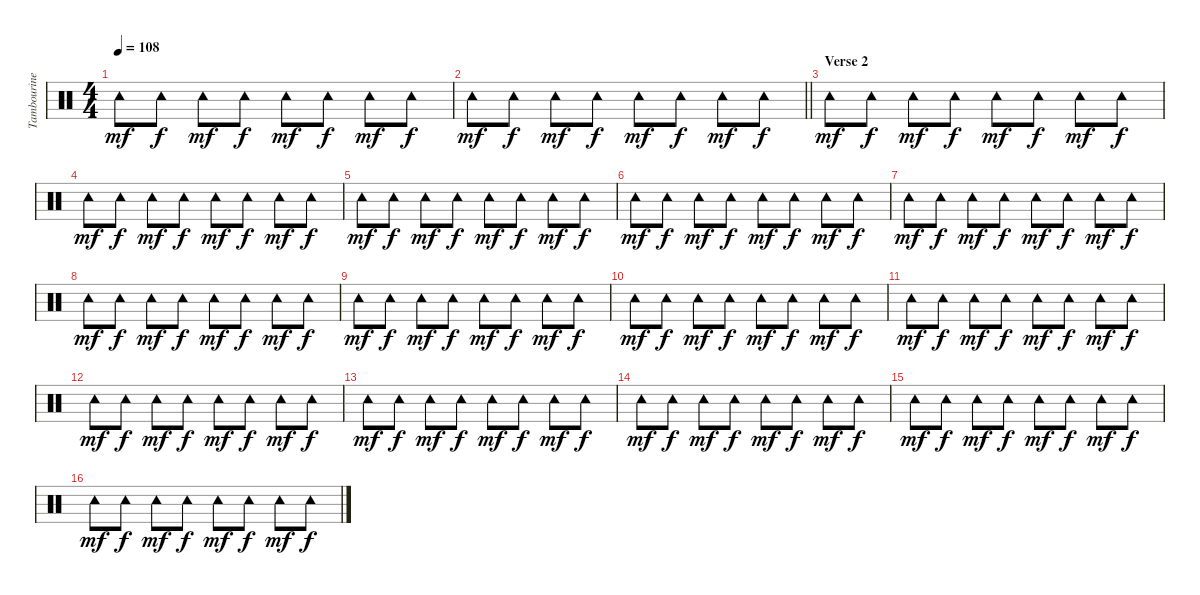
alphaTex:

\track ("Tambourine" "Tambourine") {instrument percussion}
\staff {score}
\articulation defaults
\ts (4 4)
\tempo 108
\clef neutral
\ks c "Tambourine (hit)".8{dy mf} "Tambourine (hit)".8{dy f} "Tambourine (hit)".8{dy mf} "Tambourine (hit)".8{dy f} "Tambourine (hit)".8{dy mf} "Tambourine (hit)".8{dy f} "Tambourine (hit)".8{dy mf} "Tambourine (hit)".8{dy f}
|
\barLineRight lightlight "Tambourine (hit)".8{dy mf} "Tambourine (hit)".8{dy f} "Tambourine (hit)".8{dy mf} "Tambourine (hit)".8{dy f} "Tambourine (hit)".8{dy mf} "Tambourine (hit)".8{dy f} "Tambourine (hit)".8{dy mf} "Tambourine (hit)".8{dy f}
|
\section ("" "Verse 2")
"Tambourine (hit)".8{dy mf} "Tambourine (hit)".8{dy f} "Tambourine (hit)".8{dy mf} "Tambourine (hit)".8{dy f} "Tambourine (hit)".8{dy mf} "Tambourine (hit)".8{dy f} "Tambourine (hit)".8{dy mf} "Tambourine (hit)".8{dy f} |
"Tambourine (hit)".8{dy mf} "Tambourine (hit)".8{dy f} "Tambourine (hit)".8{dy mf} "Tambourine (hit)".8{dy f} "Tambourine (hit)".8{dy mf} "Tambourine (hit)".8{dy f} "Tambourine (hit)".8{dy mf} "Tambourine (hit)".8{dy f} |
"Tambourine (hit)".8{dy mf} "Tambourine (hit)".8{dy f} "Tambourine (hit)".8{dy mf} "Tambourine (hit)".8{dy f} "Tambourine (hit)".8{dy mf} "Tambourine (hit)".8{dy f} "Tambourine (hit)".8{dy mf} "Tambourine (hit)".8{dy f} |
"Tambourine (hit)".8{dy mf} "Tambourine (hit)".8{dy f} "Tambourine (hit)".8{dy mf} "Tambourine (hit)".8{dy f} "Tambourine (hit)".8{dy mf} "Tambourine (hit)".8{dy f} "Tambourine (hit)".8{dy mf} "Tambourine (hit)".8{dy f} |
"Tambourine (hit)".8{dy mf} "Tambourine (hit)".8{dy f} "Tambourine (hit)".8{dy mf} "Tambourine (hit)".8{dy f} "Tambourine (hit)".8{dy mf} "Tambourine (hit)".8{dy f} "Tambourine (hit)".8{dy mf} "Tambourine (hit)".8{dy f} |
"Tambourine (hit)".8{dy mf} "Tambourine (hit)".8{dy f} "Tambourine (hit)".8{dy mf} "Tambourine (hit)".8{dy f} "Tambourine (hit)".8{dy mf} "Tambourine (hit)".8{dy f} "Tambourine (hit)".8{dy mf} "Tambourine (hit)".8{dy f} |
"Tambourine (hit)".8{dy mf} "Tambourine (hit)".8{dy f} "Tambourine (hit)".8{dy mf} "Tambourine (hit)".8{dy f} "Tambourine (hit)".8{dy mf} "Tambourine (hit)".8{dy f} "Tambourine (hit)".8{dy mf} "Tambourine (hit)".8{dy f} |
"Tambourine (hit)".8{dy mf} "Tambourine (hit)".8{dy f} "Tambourine (hit)".8{dy mf} "Tambourine (hit)".8{dy f} "Tambourine (hit)".8{dy mf} "Tambourine (hit)".8{dy f} "Tambourine (hit)".8{dy mf} "Tambourine (hit)".8{dy f} |
"Tambourine (hit)".8{dy mf} "Tambourine (hit)".8{dy f} "Tambourine (hit)".8{dy mf} "Tambourine (hit)".8{dy f} "Tambourine (hit)".8{dy mf} "Tambourine (hit)".8{dy f} "Tambourine (hit)".8{dy mf} "Tambourine (hit)".8{dy f} |
"Tambourine (hit)".8{dy mf} "Tambourine (hit)".8{dy f} "Tambourine (hit)".8{dy mf} "Tambourine (hit)".8{dy f} "Tambourine (hit)".8{dy mf} "Tambourine (hit)".8{dy f} "Tambourine (hit)".8{dy mf} "Tambourine (hit)".8{dy f} |
"Tambourine (hit)".8{dy mf} "Tambourine (hit)".8{dy f} "Tambourine (hit)".8{dy mf} "Tambourine (hit)".8{dy f} "Tambourine (hit)".8{dy mf} "Tambourine (hit)".8{dy f} "Tambourine (hit)".8{dy mf} "Tambourine (hit)".8{dy f} |
"Tambourine (hit)".8{dy mf} "Tambourine (hit)".8{dy f} "Tambourine (hit)".8{dy mf} "Tambourine (hit)".8{dy f} "Tambourine (hit)".8{dy mf} "Tambourine (hit)".8{dy f} "Tambourine (hit)".8{dy mf} "Tambourine (hit)".8{dy f} |
"Tambourine (hit)".8{dy mf} "Tambourine (hit)".8{dy f} "Tambourine (hit)".8{dy mf} "Tambourine (hit)".8{dy f} "Tambourine (hit)".8{dy mf} "Tambourine (hit)".8{dy f} "Tambourine (hit)".8{dy mf} "Tambourine (hit)".8{dy f} |
"Tambourine (hit)".8{dy mf} "Tambourine (hit)".8{dy f} "Tambourine (hit)".8{dy mf} "Tambourine (hit)".8{dy f} "Tambourine (hit)".8{dy mf} "Tambourine (hit)".8{dy f} "Tambourine (hit)".8{dy mf} "Tambourine (hit)".8{dy f}
